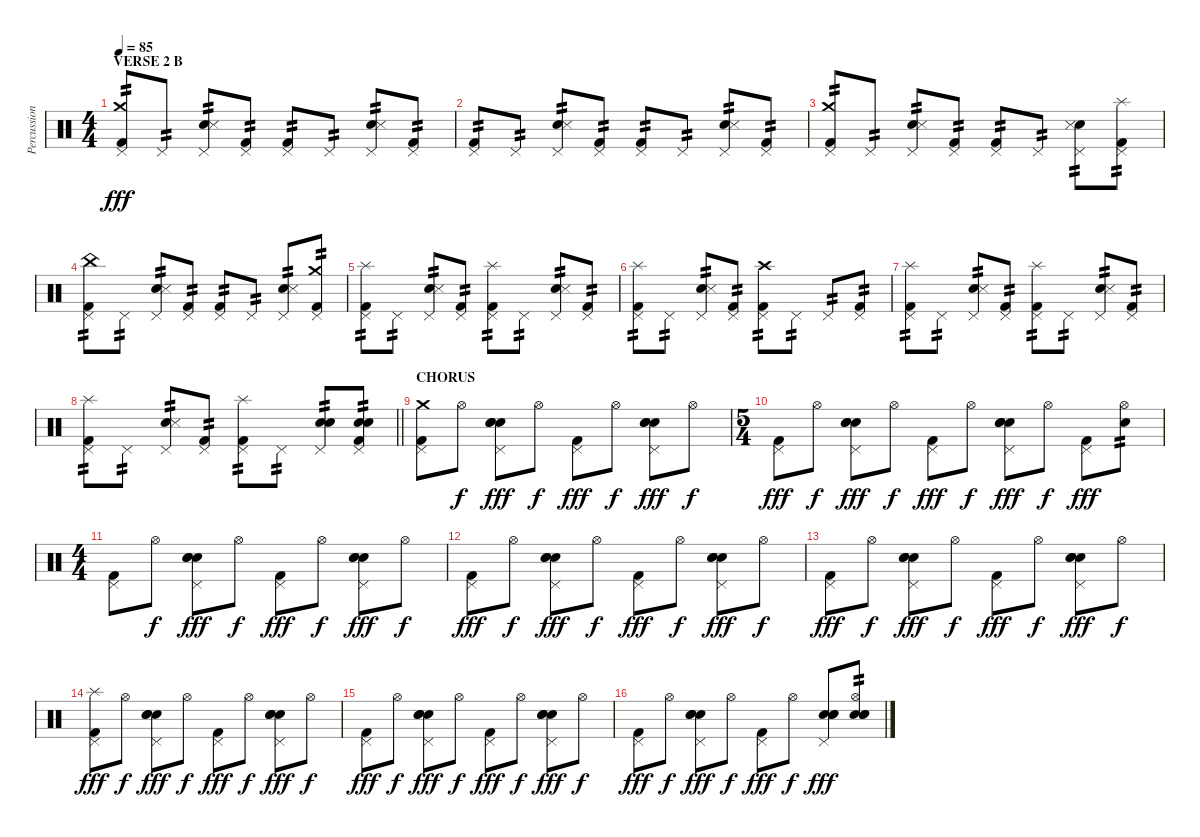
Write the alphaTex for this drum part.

\track ("Percussion" "Percussion") {instrument percussion}
\staff {score}
\articulation defaults
\ts (4 4)
\section ("" "VERSE 2 B")
\tempo 85
\clef neutral
\ks c
("Pedal Hi-Hat (hit)" "Crash medium (hit)" "Kick (hit) 2").8{tp 2 dy fff} "Pedal Hi-Hat (hit)".8{tp 2} ("Pedal Hi-Hat (hit)" "Electric Snare (hit)" "Snare (side stick) 3").8{tp 2} ("Pedal Hi-Hat (hit)" "Kick (hit) 2").8{tp 2} ("Pedal Hi-Hat (hit)" "Kick (hit) 2").8{tp 2} "Pedal Hi-Hat (hit)".8{tp 2} ("Pedal Hi-Hat (hit)" "Electric Snare (hit)" "Snare (side stick) 3").8{tp 2} ("Pedal Hi-Hat (hit)" "Kick (hit) 2").8{tp 2} |
("Pedal Hi-Hat (hit)" "Kick (hit) 2").8{tp 2} "Pedal Hi-Hat (hit)".8{tp 2} ("Pedal Hi-Hat (hit)" "Electric Snare (hit)" "Snare (side stick) 3").8{tp 2} ("Pedal Hi-Hat (hit)" "Kick (hit) 2").8{tp 2} ("Pedal Hi-Hat (hit)" "Kick (hit) 2").8{tp 2} "Pedal Hi-Hat (hit)".8{tp 2} ("Pedal Hi-Hat (hit)" "Electric Snare (hit)" "Snare (side stick) 3").8{tp 2} ("Pedal Hi-Hat (hit)" "Kick (hit) 2").8{tp 2} |
("Pedal Hi-Hat (hit)" "Crash medium (hit)" "Kick (hit) 2").8{tp 2} "Pedal Hi-Hat (hit)".8{tp 2} ("Pedal Hi-Hat (hit)" "Electric Snare (hit)" "Snare (side stick) 3").8{tp 2} ("Pedal Hi-Hat (hit)" "Kick (hit) 2").8{tp 2} ("Pedal Hi-Hat (hit)" "Kick (hit) 2").8{tp 2} "Pedal Hi-Hat (hit)".8{tp 2} ("Pedal Hi-Hat (hit)" "Electric Snare (hit)" "Snare (side stick) 3").8{tp 2} ("Pedal Hi-Hat (hit)" "Splash (hit)" "Kick (hit) 2").8{tp 2} |
("Pedal Hi-Hat (hit)" "China (hit)" "Kick (hit) 2").8{tp 2} "Pedal Hi-Hat (hit)".8{tp 2} ("Pedal Hi-Hat (hit)" "Electric Snare (hit)" "Snare (side stick) 3").8{tp 2} ("Pedal Hi-Hat (hit)" "Kick (hit) 2").8{tp 2} ("Pedal Hi-Hat (hit)" "Kick (hit) 2").8{tp 2} "Pedal Hi-Hat (hit)".8{tp 2} ("Pedal Hi-Hat (hit)" "Electric Snare (hit)" "Snare (side stick) 3").8{tp 2} ("Pedal Hi-Hat (hit)" "Crash medium (hit)" "Kick (hit) 2").8{tp 2} |
("Pedal Hi-Hat (hit)" "Splash (hit)" "Kick (hit) 2").8{tp 2} "Pedal Hi-Hat (hit)".8{tp 2} ("Pedal Hi-Hat (hit)" "Electric Snare (hit)" "Snare (side stick) 3").8{tp 2} ("Pedal Hi-Hat (hit)" "Kick (hit) 2").8{tp 2} ("Pedal Hi-Hat (hit)" "Splash (hit)" "Kick (hit) 2").8{tp 2} "Pedal Hi-Hat (hit)".8{tp 2} ("Pedal Hi-Hat (hit)" "Electric Snare (hit)" "Snare (side stick) 3").8{tp 2} ("Pedal Hi-Hat (hit)" "Kick (hit) 2").8{tp 2} |
("Pedal Hi-Hat (hit)" "Splash (hit)" "Kick (hit) 2").8{tp 2} "Pedal Hi-Hat (hit)".8{tp 2} ("Pedal Hi-Hat (hit)" "Electric Snare (hit)" "Snare (side stick) 3").8{tp 2} ("Pedal Hi-Hat (hit)" "Kick (hit) 2").8{tp 2} ("Pedal Hi-Hat (hit)" "Crash high (hit)" "Kick (hit) 2").8{tp 2} "Pedal Hi-Hat (hit)".8{tp 2} "Pedal Hi-Hat (hit)".8{tp 2} ("Pedal Hi-Hat (hit)" "Kick (hit) 2").8{tp 2} |
("Pedal Hi-Hat (hit)" "Splash (hit)" "Kick (hit) 2").8{tp 2} "Pedal Hi-Hat (hit)".8{tp 2} ("Pedal Hi-Hat (hit)" "Electric Snare (hit)" "Snare (side stick) 3").8{tp 2} ("Pedal Hi-Hat (hit)" "Kick (hit) 2").8{tp 2} ("Pedal Hi-Hat (hit)" "Splash (hit)" "Kick (hit) 2").8{tp 2} "Pedal Hi-Hat (hit)".8{tp 2} ("Pedal Hi-Hat (hit)" "Electric Snare (hit)" "Snare (side stick) 3").8{tp 2} ("Pedal Hi-Hat (hit)" "Kick (hit) 2").8{tp 2} |
\barLineRight lightlight
("Pedal Hi-Hat (hit)" "Splash (hit)" "Kick (hit) 2").8{tp 2} "Pedal Hi-Hat (hit)".8{tp 2} ("Pedal Hi-Hat (hit)" "Electric Snare (hit)" "Snare (side stick) 3").8{tp 2} ("Pedal Hi-Hat (hit)" "Kick (hit) 2").8{tp 2} ("Pedal Hi-Hat (hit)" "Splash (hit)" "Kick (hit) 2").8{tp 2} "Pedal Hi-Hat (hit)".8{tp 2} ("Pedal Hi-Hat (hit)" "Electric Snare (hit)" "Snare (hit) 2").8{tp 2} ("Pedal Hi-Hat (hit)" "Electric Snare (hit)" "Snare (hit) 2" "Kick (hit) 2").8{tp 2} |
\section ("" "CHORUS")
("Crash medium (hit)" "Pedal Hi-Hat (hit)" "Kick (hit) 2").8 "Hi-Hat (open)".8{dy f} ("Pedal Hi-Hat (hit)" "Hand Clap (hit)" "Electric Snare (hit)" "Snare (hit) 2").8{dy fff} "Hi-Hat (open)".8{dy f} ("Pedal Hi-Hat (hit)" "Kick (hit) 2").8{dy fff} "Hi-Hat (open)".8{dy f} ("Pedal Hi-Hat (hit)" "Hand Clap (hit)" "Electric Snare (hit)" "Snare (hit) 2").8{dy fff} "Hi-Hat (open)".8{dy f} |
\ts (5 4)
("Pedal Hi-Hat (hit)" "Kick (hit) 2").8{dy fff} "Hi-Hat (open)".8{dy f} ("Pedal Hi-Hat (hit)" "Hand Clap (hit)" "Electric Snare (hit)" "Snare (hit) 2").8{dy fff} "Hi-Hat (open)".8{dy f} ("Pedal Hi-Hat (hit)" "Kick (hit) 2").8{dy fff} "Hi-Hat (open)".8{dy f} ("Pedal Hi-Hat (hit)" "Hand Clap (hit)" "Electric Snare (hit)" "Snare (hit) 2").8{dy fff} "Hi-Hat (open)".8{dy f} ("Pedal Hi-Hat (hit)" "Kick (hit) 2").8{dy fff} ("Hi-Hat (open)" "Electric Snare (hit)").8{tp 2} |
\ts (4 4)
("Pedal Hi-Hat (hit)" "Kick (hit) 2").8 "Hi-Hat (open)".8{dy f} ("Pedal Hi-Hat (hit)" "Hand Clap (hit)" "Electric Snare (hit)" "Snare (hit) 2").8{dy fff} "Hi-Hat (open)".8{dy f} ("Pedal Hi-Hat (hit)" "Kick (hit) 2").8{dy fff} "Hi-Hat (open)".8{dy f} ("Pedal Hi-Hat (hit)" "Hand Clap (hit)" "Electric Snare (hit)" "Snare (hit) 2").8{dy fff} "Hi-Hat (open)".8{dy f} |
("Pedal Hi-Hat (hit)" "Kick (hit) 2").8{dy fff} "Hi-Hat (open)".8{dy f} ("Pedal Hi-Hat (hit)" "Hand Clap (hit)" "Electric Snare (hit)" "Snare (hit) 2").8{dy fff} "Hi-Hat (open)".8{dy f} ("Pedal Hi-Hat (hit)" "Kick (hit) 2").8{dy fff} "Hi-Hat (open)".8{dy f} ("Pedal Hi-Hat (hit)" "Hand Clap (hit)" "Electric Snare (hit)" "Snare (hit) 2").8{dy fff} "Hi-Hat (open)".8{dy f} |
("Pedal Hi-Hat (hit)" "Kick (hit) 2").8{dy fff} "Hi-Hat (open)".8{dy f} ("Pedal Hi-Hat (hit)" "Hand Clap (hit)" "Electric Snare (hit)" "Snare (hit) 2").8{dy fff} "Hi-Hat (open)".8{dy f} ("Pedal Hi-Hat (hit)" "Kick (hit) 2").8{dy fff} "Hi-Hat (open)".8{dy f} ("Pedal Hi-Hat (hit)" "Hand Clap (hit)" "Electric Snare (hit)" "Snare (hit) 2").8{dy fff} "Hi-Hat (open)".8{dy f} |
("Splash (hit)" "Pedal Hi-Hat (hit)" "Kick (hit) 2").8{dy fff} "Hi-Hat (open)".8{dy f} ("Pedal Hi-Hat (hit)" "Hand Clap (hit)" "Electric Snare (hit)" "Snare (hit) 2").8{dy fff} "Hi-Hat (open)".8{dy f} ("Pedal Hi-Hat (hit)" "Kick (hit) 2").8{dy fff} "Hi-Hat (open)".8{dy f} ("Pedal Hi-Hat (hit)" "Hand Clap (hit)" "Electric Snare (hit)" "Snare (hit) 2").8{dy fff} "Hi-Hat (open)".8{dy f} |
("Pedal Hi-Hat (hit)" "Kick (hit) 2").8{dy fff} "Hi-Hat (open)".8{dy f} ("Pedal Hi-Hat (hit)" "Hand Clap (hit)" "Electric Snare (hit)" "Snare (hit) 2").8{dy fff} "Hi-Hat (open)".8{dy f} ("Pedal Hi-Hat (hit)" "Kick (hit) 2").8{dy fff} "Hi-Hat (open)".8{dy f} ("Pedal Hi-Hat (hit)" "Hand Clap (hit)" "Electric Snare (hit)" "Snare (hit) 2").8{dy fff} "Hi-Hat (open)".8{dy f} |
("Pedal Hi-Hat (hit)" "Kick (hit) 2").8{dy fff} "Hi-Hat (open)".8{dy f} ("Pedal Hi-Hat (hit)" "Hand Clap (hit)" "Electric Snare (hit)" "Snare (hit) 2").8{dy fff} "Hi-Hat (open)".8{dy f} ("Pedal Hi-Hat (hit)" "Kick (hit) 2").8{dy fff} "Hi-Hat (open)".8{dy f} ("Pedal Hi-Hat (hit)" "Hand Clap (hit)" "Electric Snare (hit)" "Snare (hit) 2").8{dy fff} ("Hi-Hat (open)" "Hand Clap (hit)" "Electric Snare (hit)" "Snare (hit) 2").8{tp 2}
